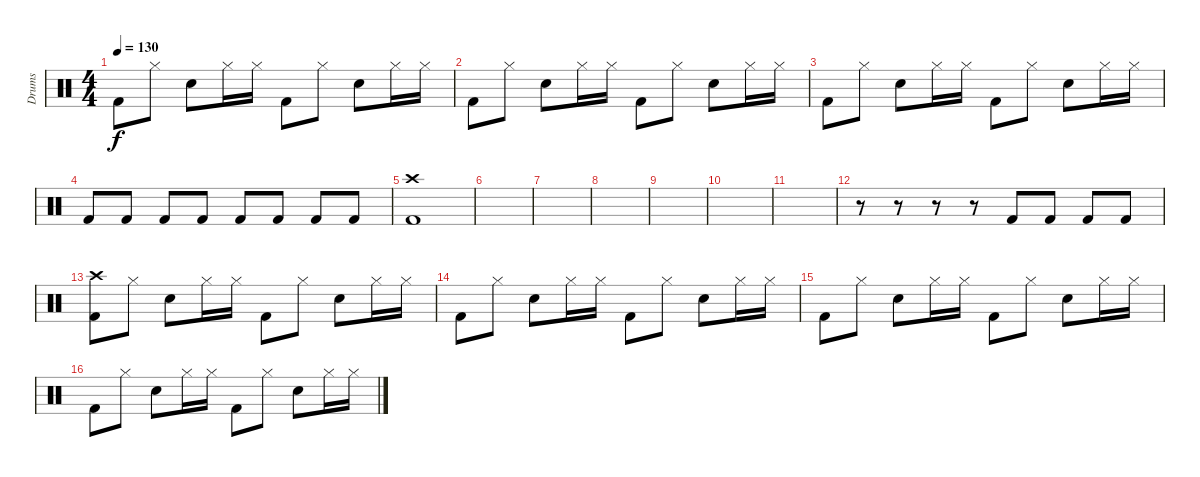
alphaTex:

\track ("Drums" "Drums") {instrument percussion}
\staff {score}
\articulation defaults
\ts (4 4)
\tempo 130
\clef neutral
\ks c "Kick (hit) 2".8{dy f} "Hi-Hat (closed)".8 "Snare (hit) 2".8 "Hi-Hat (closed)".16 "Hi-Hat (closed)".16 "Kick (hit) 2".8 "Hi-Hat (closed)".8 "Snare (hit) 2".8 "Hi-Hat (closed)".16 "Hi-Hat (closed)".16
|
"Kick (hit) 2".8 "Hi-Hat (closed)".8 "Snare (hit) 2".8 "Hi-Hat (closed)".16 "Hi-Hat (closed)".16 "Kick (hit) 2".8 "Hi-Hat (closed)".8 "Snare (hit) 2".8 "Hi-Hat (closed)".16 "Hi-Hat (closed)".16 |
"Kick (hit) 2".8 "Hi-Hat (closed)".8 "Snare (hit) 2".8 "Hi-Hat (closed)".16 "Hi-Hat (closed)".16 "Kick (hit) 2".8 "Hi-Hat (closed)".8 "Snare (hit) 2".8 "Hi-Hat (closed)".16 "Hi-Hat (closed)".16 |
"Kick (hit) 2".8 "Kick (hit) 2".8 "Kick (hit) 2".8 "Kick (hit) 2".8 "Kick (hit) 2".8 "Kick (hit) 2".8 "Kick (hit) 2".8 "Kick (hit) 2".8 |
("Crash high (hit)" "Kick (hit) 2").1 |
|
|
|
|
|
|
r.8 r.8 r.8 r.8 "Kick (hit) 2".8 "Kick (hit) 2".8 "Kick (hit) 2".8 "Kick (hit) 2".8 |
("Crash high (hit)" "Kick (hit) 2").8 "Hi-Hat (closed)".8 "Snare (hit) 2".8 "Hi-Hat (closed)".16 "Hi-Hat (closed)".16 "Kick (hit) 2".8 "Hi-Hat (closed)".8 "Snare (hit) 2".8 "Hi-Hat (closed)".16 "Hi-Hat (closed)".16 |
"Kick (hit) 2".8 "Hi-Hat (closed)".8 "Snare (hit) 2".8 "Hi-Hat (closed)".16 "Hi-Hat (closed)".16 "Kick (hit) 2".8 "Hi-Hat (closed)".8 "Snare (hit) 2".8 "Hi-Hat (closed)".16 "Hi-Hat (closed)".16 |
"Kick (hit) 2".8 "Hi-Hat (closed)".8 "Snare (hit) 2".8 "Hi-Hat (closed)".16 "Hi-Hat (closed)".16 "Kick (hit) 2".8 "Hi-Hat (closed)".8 "Snare (hit) 2".8 "Hi-Hat (closed)".16 "Hi-Hat (closed)".16 |
"Kick (hit) 2".8 "Hi-Hat (closed)".8 "Snare (hit) 2".8 "Hi-Hat (closed)".16 "Hi-Hat (closed)".16 "Kick (hit) 2".8 "Hi-Hat (closed)".8 "Snare (hit) 2".8 "Hi-Hat (closed)".16 "Hi-Hat (closed)".16
